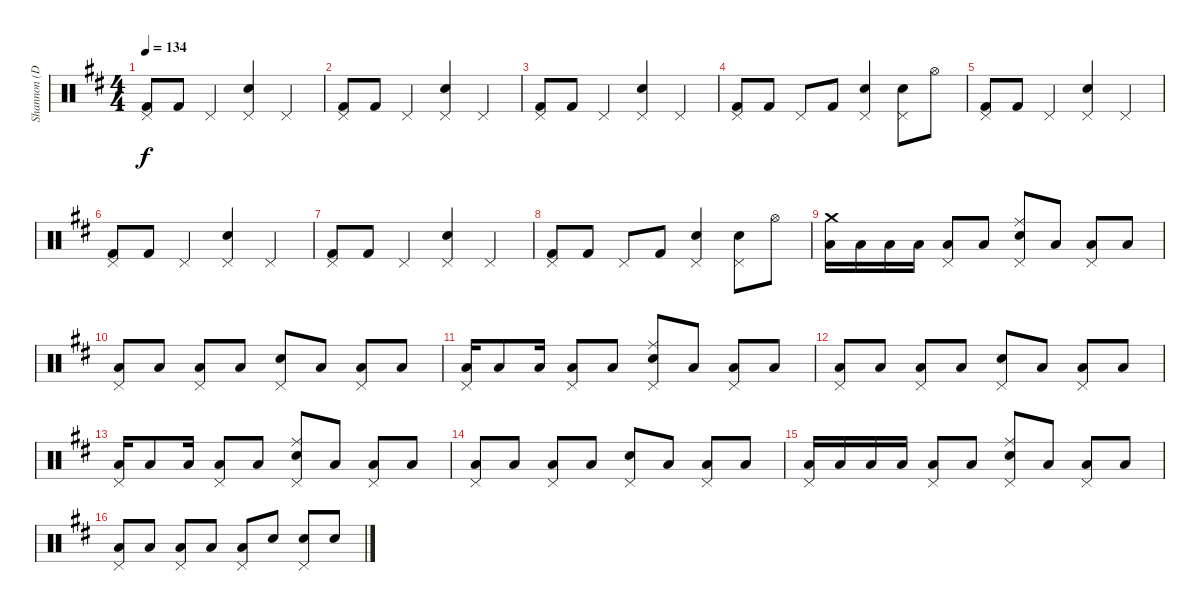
\track ("Shannon (Drums)" "Shannon (D") {instrument percussion}
\staff {score}
\articulation defaults
\ts (4 4)
\tempo 134
\clef neutral
\ks d
("Pedal Hi-Hat (hit)" "Kick (hit) 2").8{dy f} "Kick (hit) 2".8 "Pedal Hi-Hat (hit)".4 ("Pedal Hi-Hat (hit)" "Electric Snare (hit)").4 "Pedal Hi-Hat (hit)".4 |
("Pedal Hi-Hat (hit)" "Kick (hit) 2").8 "Kick (hit) 2".8 "Pedal Hi-Hat (hit)".4 ("Pedal Hi-Hat (hit)" "Electric Snare (hit)").4 "Pedal Hi-Hat (hit)".4 |
("Pedal Hi-Hat (hit)" "Kick (hit) 2").8 "Kick (hit) 2".8 "Pedal Hi-Hat (hit)".4 ("Pedal Hi-Hat (hit)" "Electric Snare (hit)").4 "Pedal Hi-Hat (hit)".4 |
("Pedal Hi-Hat (hit)" "Kick (hit) 2").8 "Kick (hit) 2".8 "Pedal Hi-Hat (hit)".8 "Kick (hit) 2".8 ("Pedal Hi-Hat (hit)" "Electric Snare (hit)").4 ("Pedal Hi-Hat (hit)" "Electric Snare (hit)").8 "Hi-Hat (open)".8 |
("Pedal Hi-Hat (hit)" "Kick (hit) 2").8 "Kick (hit) 2".8 "Pedal Hi-Hat (hit)".4 ("Pedal Hi-Hat (hit)" "Electric Snare (hit)").4 "Pedal Hi-Hat (hit)".4 |
("Pedal Hi-Hat (hit)" "Kick (hit) 2").8 "Kick (hit) 2".8 "Pedal Hi-Hat (hit)".4 ("Pedal Hi-Hat (hit)" "Electric Snare (hit)").4 "Pedal Hi-Hat (hit)".4 |
("Pedal Hi-Hat (hit)" "Kick (hit) 2").8 "Kick (hit) 2".8 "Pedal Hi-Hat (hit)".4 ("Pedal Hi-Hat (hit)" "Electric Snare (hit)").4 "Pedal Hi-Hat (hit)".4 |
("Pedal Hi-Hat (hit)" "Kick (hit) 2").8 "Kick (hit) 2".8 "Pedal Hi-Hat (hit)".8 "Kick (hit) 2".8 ("Pedal Hi-Hat (hit)" "Electric Snare (hit)").4 ("Pedal Hi-Hat (hit)" "Electric Snare (hit)").8 "Hi-Hat (open)".8 |
("Crash medium (hit)" "Low Tom (hit)").16 "Low Tom (hit)".16 "Low Tom (hit)".16 "Low Tom (hit)".16 ("Pedal Hi-Hat (hit)" "Low Tom (hit)").8 "Low Tom (hit)".8 ("Pedal Hi-Hat (hit)" "Ride (middle)" "Electric Snare (hit)").8 "Low Tom (hit)".8 ("Pedal Hi-Hat (hit)" "Low Tom (hit)").8 "Low Tom (hit)".8 |
("Pedal Hi-Hat (hit)" "Low Tom (hit)").8 "Low Tom (hit)".8 ("Pedal Hi-Hat (hit)" "Low Tom (hit)").8 "Low Tom (hit)".8 ("Pedal Hi-Hat (hit)" "Electric Snare (hit)").8 "Low Tom (hit)".8 ("Pedal Hi-Hat (hit)" "Low Tom (hit)").8 "Low Tom (hit)".8 |
("Pedal Hi-Hat (hit)" "Low Tom (hit)").16 "Low Tom (hit)".8 "Low Tom (hit)".16 ("Pedal Hi-Hat (hit)" "Low Tom (hit)").8 "Low Tom (hit)".8 ("Pedal Hi-Hat (hit)" "Ride (middle)" "Electric Snare (hit)").8 "Low Tom (hit)".8 ("Pedal Hi-Hat (hit)" "Low Tom (hit)").8 "Low Tom (hit)".8 |
("Pedal Hi-Hat (hit)" "Low Tom (hit)").8 "Low Tom (hit)".8 ("Pedal Hi-Hat (hit)" "Low Tom (hit)").8 "Low Tom (hit)".8 ("Pedal Hi-Hat (hit)" "Electric Snare (hit)").8 "Low Tom (hit)".8 ("Pedal Hi-Hat (hit)" "Low Tom (hit)").8 "Low Tom (hit)".8 |
("Pedal Hi-Hat (hit)" "Low Tom (hit)").16 "Low Tom (hit)".8 "Low Tom (hit)".16 ("Pedal Hi-Hat (hit)" "Low Tom (hit)").8 "Low Tom (hit)".8 ("Pedal Hi-Hat (hit)" "Ride (middle)" "Electric Snare (hit)").8 "Low Tom (hit)".8 ("Pedal Hi-Hat (hit)" "Low Tom (hit)").8 "Low Tom (hit)".8 |
("Pedal Hi-Hat (hit)" "Low Tom (hit)").8 "Low Tom (hit)".8 ("Pedal Hi-Hat (hit)" "Low Tom (hit)").8 "Low Tom (hit)".8 ("Pedal Hi-Hat (hit)" "Electric Snare (hit)").8 "Low Tom (hit)".8 ("Pedal Hi-Hat (hit)" "Low Tom (hit)").8 "Low Tom (hit)".8 |
("Pedal Hi-Hat (hit)" "Low Tom (hit)").16 "Low Tom (hit)".16 "Low Tom (hit)".16 "Low Tom (hit)".16 ("Pedal Hi-Hat (hit)" "Low Tom (hit)").8 "Low Tom (hit)".8 ("Pedal Hi-Hat (hit)" "Ride (middle)" "Electric Snare (hit)").8 "Low Tom (hit)".8 ("Pedal Hi-Hat (hit)" "Low Tom (hit)").8 "Low Tom (hit)".8 |
("Pedal Hi-Hat (hit)" "Low Tom (hit)").8 "Low Tom (hit)".8 ("Pedal Hi-Hat (hit)" "Low Tom (hit)").8 "Low Tom (hit)".8 ("Pedal Hi-Hat (hit)" "Low Tom (hit)").8 "Electric Snare (hit)".8 ("Pedal Hi-Hat (hit)" "Electric Snare (hit)").8 "Electric Snare (hit)".8
